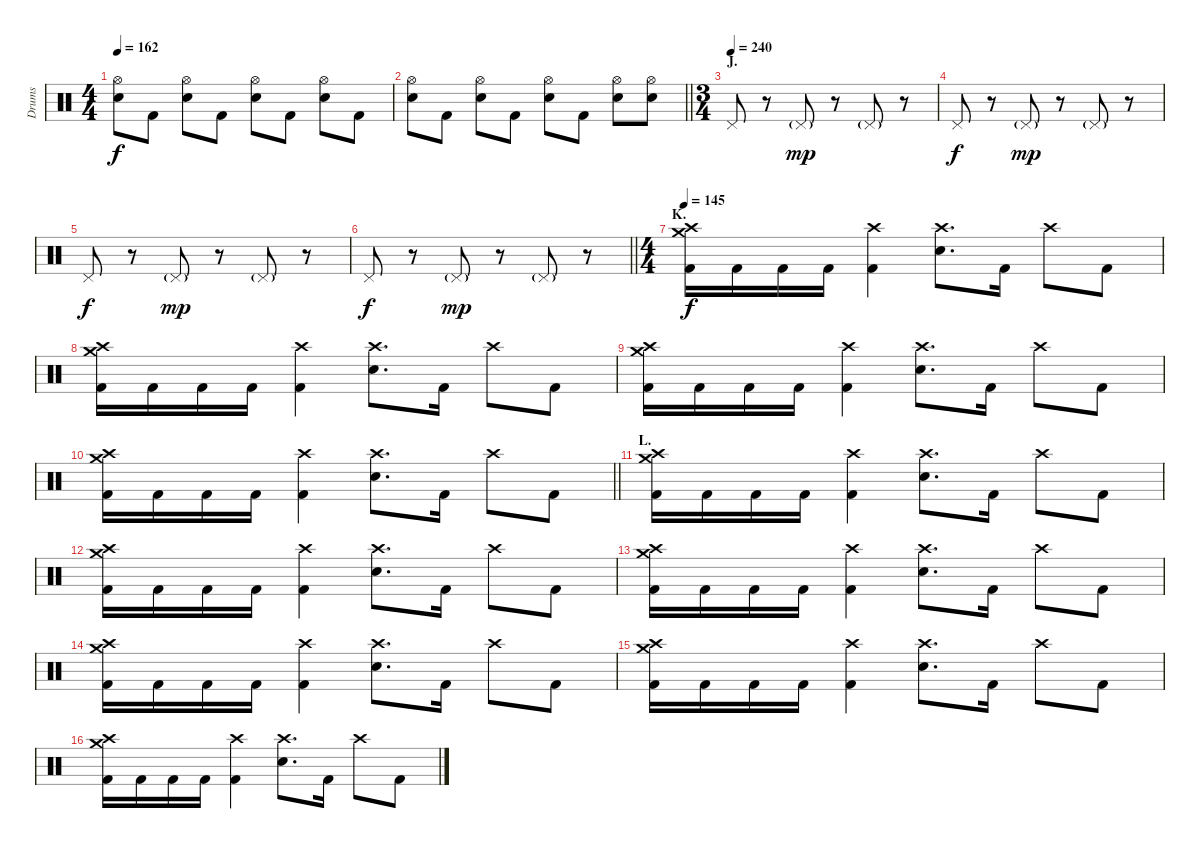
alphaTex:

\track ("Drums" "Drums") {instrument percussion}
\staff {score}
\articulation defaults
\ts (4 4)
\tempo 162
\clef neutral
\ks c
("Hi-Hat (open)" "Electric Snare (hit)").8{dy f} "Kick (hit) 2".8 ("Hi-Hat (open)" "Electric Snare (hit)").8 "Kick (hit) 2".8 ("Hi-Hat (open)" "Electric Snare (hit)").8 "Kick (hit) 2".8 ("Hi-Hat (open)" "Electric Snare (hit)").8 "Kick (hit) 2".8 |
\barLineRight lightlight
("Hi-Hat (open)" "Electric Snare (hit)").8 "Kick (hit) 2".8 ("Hi-Hat (open)" "Electric Snare (hit)").8 "Kick (hit) 2".8 ("Hi-Hat (open)" "Electric Snare (hit)").8 "Kick (hit) 2".8 ("Hi-Hat (open)" "Electric Snare (hit)").8 ("Hi-Hat (open)" "Electric Snare (hit)").8 |
\ts (3 4)
\section ("" "J.")
\tempo (240)
"Pedal Hi-Hat (hit)".8 r.8 "Pedal Hi-Hat (hit)"{g}.8{dy mp} r.8 "Pedal Hi-Hat (hit)"{g}.8 r.8 |
"Pedal Hi-Hat (hit)".8{dy f} r.8 "Pedal Hi-Hat (hit)"{g}.8{dy mp} r.8 "Pedal Hi-Hat (hit)"{g}.8 r.8 |
"Pedal Hi-Hat (hit)".8{dy f} r.8 "Pedal Hi-Hat (hit)"{g}.8{dy mp} r.8 "Pedal Hi-Hat (hit)"{g}.8 r.8 |
\barLineRight lightlight "Pedal Hi-Hat (hit)".8{dy f}
r.8 "Pedal Hi-Hat (hit)"{g}.8{dy mp} r.8 "Pedal Hi-Hat (hit)"{g}.8 r.8 |
\ts (4 4)
\section ("" "K.")
\tempo 145
("Crash medium (hit)" "Crash high (hit)" "Kick (hit) 2").16{dy f} "Kick (hit) 2".16 "Kick (hit) 2".16 "Kick (hit) 2".16 ("Crash high (hit)" "Kick (hit) 2").4 ("Crash high (hit)" "Electric Snare (hit)").8{d} "Kick (hit) 2".16 "Crash high (hit)".8 "Kick (hit) 2".8 |
("Crash medium (hit)" "Crash high (hit)" "Kick (hit) 2").16 "Kick (hit) 2".16 "Kick (hit) 2".16 "Kick (hit) 2".16 ("Crash high (hit)" "Kick (hit) 2").4 ("Crash high (hit)" "Electric Snare (hit)").8{d} "Kick (hit) 2".16 "Crash high (hit)".8 "Kick (hit) 2".8 |
("Crash medium (hit)" "Crash high (hit)" "Kick (hit) 2").16 "Kick (hit) 2".16 "Kick (hit) 2".16 "Kick (hit) 2".16 ("Crash high (hit)" "Kick (hit) 2").4 ("Crash high (hit)" "Electric Snare (hit)").8{d} "Kick (hit) 2".16 "Crash high (hit)".8 "Kick (hit) 2".8 |
\barLineRight lightlight
("Crash medium (hit)" "Crash high (hit)" "Kick (hit) 2").16 "Kick (hit) 2".16 "Kick (hit) 2".16 "Kick (hit) 2".16 ("Crash high (hit)" "Kick (hit) 2").4 ("Crash high (hit)" "Electric Snare (hit)").8{d} "Kick (hit) 2".16 "Crash high (hit)".8 "Kick (hit) 2".8 |
\section ("" "L.")
("Crash medium (hit)" "Crash high (hit)" "Kick (hit) 2").16 "Kick (hit) 2".16 "Kick (hit) 2".16 "Kick (hit) 2".16 ("Crash high (hit)" "Kick (hit) 2").4 ("Crash high (hit)" "Electric Snare (hit)").8{d} "Kick (hit) 2".16 "Crash high (hit)".8 "Kick (hit) 2".8 |
("Crash medium (hit)" "Crash high (hit)" "Kick (hit) 2").16 "Kick (hit) 2".16 "Kick (hit) 2".16 "Kick (hit) 2".16 ("Crash high (hit)" "Kick (hit) 2").4 ("Crash high (hit)" "Electric Snare (hit)").8{d} "Kick (hit) 2".16 "Crash high (hit)".8 "Kick (hit) 2".8 |
("Crash medium (hit)" "Crash high (hit)" "Kick (hit) 2").16 "Kick (hit) 2".16 "Kick (hit) 2".16 "Kick (hit) 2".16 ("Crash high (hit)" "Kick (hit) 2").4 ("Crash high (hit)" "Electric Snare (hit)").8{d} "Kick (hit) 2".16 "Crash high (hit)".8 "Kick (hit) 2".8 |
("Crash medium (hit)" "Crash high (hit)" "Kick (hit) 2").16 "Kick (hit) 2".16 "Kick (hit) 2".16 "Kick (hit) 2".16 ("Crash high (hit)" "Kick (hit) 2").4 ("Crash high (hit)" "Electric Snare (hit)").8{d} "Kick (hit) 2".16 "Crash high (hit)".8 "Kick (hit) 2".8 |
("Crash medium (hit)" "Crash high (hit)" "Kick (hit) 2").16 "Kick (hit) 2".16 "Kick (hit) 2".16 "Kick (hit) 2".16 ("Crash high (hit)" "Kick (hit) 2").4 ("Crash high (hit)" "Electric Snare (hit)").8{d} "Kick (hit) 2".16 "Crash high (hit)".8 "Kick (hit) 2".8 |
("Crash medium (hit)" "Crash high (hit)" "Kick (hit) 2").16 "Kick (hit) 2".16 "Kick (hit) 2".16 "Kick (hit) 2".16 ("Crash high (hit)" "Kick (hit) 2").4 ("Crash high (hit)" "Electric Snare (hit)").8{d} "Kick (hit) 2".16 "Crash high (hit)".8 "Kick (hit) 2".8
